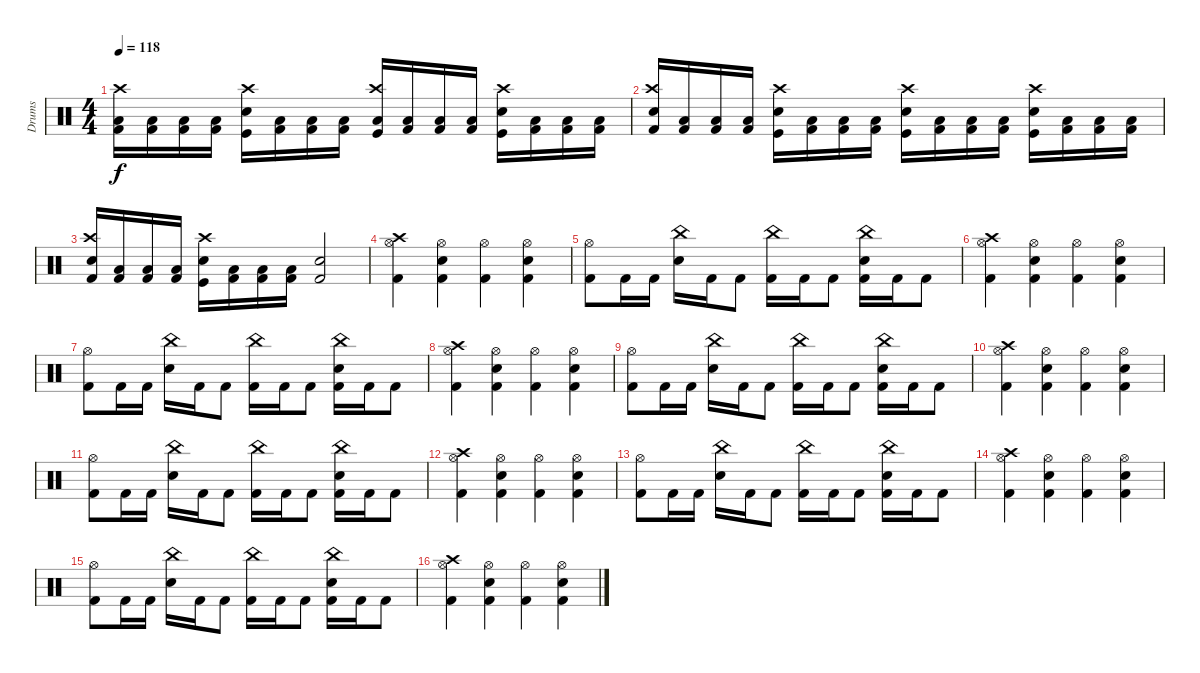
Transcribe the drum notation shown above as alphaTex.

\track ("Drums" "Drums") {instrument percussion}
\staff {score}
\articulation defaults
\ts (4 4)
\tempo 118
\clef neutral
\ks c
("Kick (hit) 2" "Low Floor Tom (hit)" "Crash high (hit)").16{dy f} ("Kick (hit) 2" "Low Floor Tom (hit)").16 ("Kick (hit) 2" "Low Floor Tom (hit)").16 ("Kick (hit) 2" "Low Floor Tom (hit)").16 ("Kick (hit)" "Snare (hit) 2" "Crash high (hit)").16 ("Kick (hit) 2" "Low Floor Tom (hit)").16 ("Kick (hit) 2" "Low Floor Tom (hit)").16 ("Kick (hit) 2" "Low Floor Tom (hit)").16 ("Kick (hit)" "Low Floor Tom (hit)" "Crash high (hit)").16 ("Kick (hit) 2" "Low Floor Tom (hit)").16 ("Kick (hit) 2" "Low Floor Tom (hit)").16 ("Kick (hit) 2" "Low Floor Tom (hit)").16 ("Kick (hit)" "Snare (hit) 2" "Crash high (hit)").16 ("Kick (hit) 2" "Low Floor Tom (hit)").16 ("Kick (hit) 2" "Low Floor Tom (hit)").16 ("Kick (hit) 2" "Low Floor Tom (hit)").16 |
("Kick (hit) 2" "Snare (hit) 2" "Crash high (hit)").16 ("Kick (hit) 2" "Low Floor Tom (hit)").16 ("Kick (hit) 2" "Low Floor Tom (hit)").16 ("Kick (hit) 2" "Low Floor Tom (hit)").16 ("Kick (hit)" "Snare (hit) 2" "Crash high (hit)").16 ("Kick (hit) 2" "Low Floor Tom (hit)").16 ("Kick (hit) 2" "Low Floor Tom (hit)").16 ("Kick (hit) 2" "Low Floor Tom (hit)").16 ("Kick (hit)" "Snare (hit) 2" "Crash high (hit)").16 ("Kick (hit) 2" "Low Floor Tom (hit)").16 ("Kick (hit) 2" "Low Floor Tom (hit)").16 ("Kick (hit) 2" "Low Floor Tom (hit)").16 ("Kick (hit)" "Snare (hit) 2" "Crash high (hit)").16 ("Kick (hit) 2" "Low Floor Tom (hit)").16 ("Kick (hit) 2" "Low Floor Tom (hit)").16 ("Kick (hit) 2" "Low Floor Tom (hit)").16 |
("Kick (hit) 2" "Snare (hit) 2" "Crash high (hit)").16 ("Kick (hit) 2" "Low Floor Tom (hit)").16 ("Kick (hit) 2" "Low Floor Tom (hit)").16 ("Kick (hit) 2" "Low Floor Tom (hit)").16 ("Kick (hit)" "Snare (hit) 2" "Crash high (hit)").16 ("Kick (hit) 2" "Low Floor Tom (hit)").16 ("Kick (hit) 2" "Low Floor Tom (hit)").16 ("Kick (hit) 2" "Low Floor Tom (hit)").16 ("Kick (hit) 2" "Snare (hit) 2").2 |
("Kick (hit) 2" "Hi-Hat (open)" "Crash high (hit)").4 ("Kick (hit) 2" "Snare (hit) 2" "Hi-Hat (open)").4 ("Kick (hit) 2" "Hi-Hat (open)").4 ("Kick (hit) 2" "Snare (hit) 2" "Hi-Hat (open)").4 |
("Kick (hit) 2" "Hi-Hat (open)").8 "Kick (hit) 2".16 "Kick (hit) 2".16 ("Snare (hit) 2" "China (hit)").16 "Kick (hit) 2".16 "Kick (hit) 2".8 ("Kick (hit) 2" "China (hit)").16 "Kick (hit) 2".16 "Kick (hit) 2".8 ("Kick (hit) 2" "Snare (hit) 2" "China (hit)").16 "Kick (hit) 2".16 "Kick (hit) 2".8 |
("Kick (hit) 2" "Hi-Hat (open)" "Crash high (hit)").4 ("Kick (hit) 2" "Snare (hit) 2" "Hi-Hat (open)").4 ("Kick (hit) 2" "Hi-Hat (open)").4 ("Kick (hit) 2" "Snare (hit) 2" "Hi-Hat (open)").4 |
("Kick (hit) 2" "Hi-Hat (open)").8 "Kick (hit) 2".16 "Kick (hit) 2".16 ("Snare (hit) 2" "China (hit)").16 "Kick (hit) 2".16 "Kick (hit) 2".8 ("Kick (hit) 2" "China (hit)").16 "Kick (hit) 2".16 "Kick (hit) 2".8 ("Kick (hit) 2" "Snare (hit) 2" "China (hit)").16 "Kick (hit) 2".16 "Kick (hit) 2".8 |
("Kick (hit) 2" "Hi-Hat (open)" "Crash high (hit)").4 ("Kick (hit) 2" "Snare (hit) 2" "Hi-Hat (open)").4 ("Kick (hit) 2" "Hi-Hat (open)").4 ("Kick (hit) 2" "Snare (hit) 2" "Hi-Hat (open)").4 |
("Kick (hit) 2" "Hi-Hat (open)").8 "Kick (hit) 2".16 "Kick (hit) 2".16 ("Snare (hit) 2" "China (hit)").16 "Kick (hit) 2".16 "Kick (hit) 2".8 ("Kick (hit) 2" "China (hit)").16 "Kick (hit) 2".16 "Kick (hit) 2".8 ("Kick (hit) 2" "Snare (hit) 2" "China (hit)").16 "Kick (hit) 2".16 "Kick (hit) 2".8 |
("Kick (hit) 2" "Hi-Hat (open)" "Crash high (hit)").4 ("Kick (hit) 2" "Snare (hit) 2" "Hi-Hat (open)").4 ("Kick (hit) 2" "Hi-Hat (open)").4 ("Kick (hit) 2" "Snare (hit) 2" "Hi-Hat (open)").4 |
("Kick (hit) 2" "Hi-Hat (open)").8 "Kick (hit) 2".16 "Kick (hit) 2".16 ("Snare (hit) 2" "China (hit)").16 "Kick (hit) 2".16 "Kick (hit) 2".8 ("Kick (hit) 2" "China (hit)").16 "Kick (hit) 2".16 "Kick (hit) 2".8 ("Kick (hit) 2" "Snare (hit) 2" "China (hit)").16 "Kick (hit) 2".16 "Kick (hit) 2".8 |
("Kick (hit) 2" "Hi-Hat (open)" "Crash high (hit)").4 ("Kick (hit) 2" "Snare (hit) 2" "Hi-Hat (open)").4 ("Kick (hit) 2" "Hi-Hat (open)").4 ("Kick (hit) 2" "Snare (hit) 2" "Hi-Hat (open)").4 |
("Kick (hit) 2" "Hi-Hat (open)").8 "Kick (hit) 2".16 "Kick (hit) 2".16 ("Snare (hit) 2" "China (hit)").16 "Kick (hit) 2".16 "Kick (hit) 2".8 ("Kick (hit) 2" "China (hit)").16 "Kick (hit) 2".16 "Kick (hit) 2".8 ("Kick (hit) 2" "Snare (hit) 2" "China (hit)").16 "Kick (hit) 2".16 "Kick (hit) 2".8 |
("Kick (hit) 2" "Hi-Hat (open)" "Crash high (hit)").4 ("Kick (hit) 2" "Snare (hit) 2" "Hi-Hat (open)").4 ("Kick (hit) 2" "Hi-Hat (open)").4 ("Kick (hit) 2" "Snare (hit) 2" "Hi-Hat (open)").4 |
("Kick (hit) 2" "Hi-Hat (open)").8 "Kick (hit) 2".16 "Kick (hit) 2".16 ("Snare (hit) 2" "China (hit)").16 "Kick (hit) 2".16 "Kick (hit) 2".8 ("Kick (hit) 2" "China (hit)").16 "Kick (hit) 2".16 "Kick (hit) 2".8 ("Kick (hit) 2" "Snare (hit) 2" "China (hit)").16 "Kick (hit) 2".16 "Kick (hit) 2".8 |
("Kick (hit) 2" "Hi-Hat (open)" "Crash high (hit)").4 ("Kick (hit) 2" "Snare (hit) 2" "Hi-Hat (open)").4 ("Kick (hit) 2" "Hi-Hat (open)").4 ("Kick (hit) 2" "Snare (hit) 2" "Hi-Hat (open)").4
